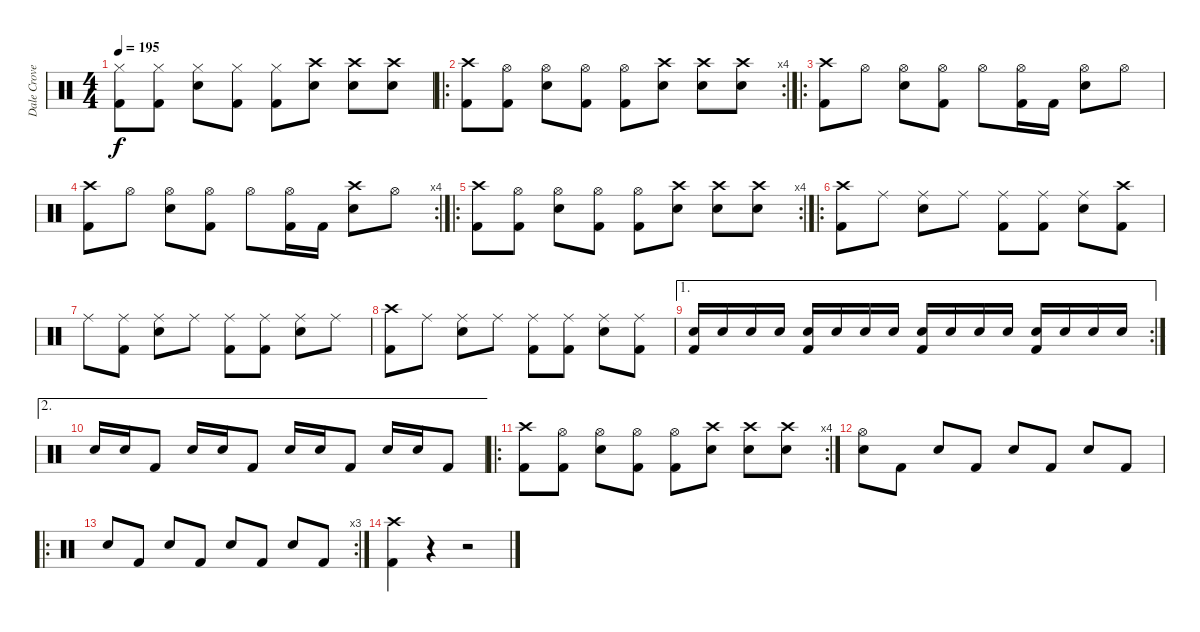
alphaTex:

\track ("Dale Crover" "Dale Crove") {instrument percussion}
\staff {score}
\articulation defaults
\ts (4 4)
\tempo 195
\clef neutral
\ks c
("Hi-Hat (closed)" "Kick (hit) 2").8{dy f} ("Hi-Hat (closed)" "Kick (hit) 2").8 ("Hi-Hat (closed)" "Electric Snare (hit)").8 ("Hi-Hat (closed)" "Kick (hit) 2").8 ("Hi-Hat (closed)" "Kick (hit) 2").8 ("Crash high (hit)" "Electric Snare (hit)").8 ("Crash high (hit)" "Electric Snare (hit)").8 ("Crash high (hit)" "Electric Snare (hit)").8 |
\ro
\rc 4
("Crash high (hit)" "Kick (hit) 2").8 ("Hi-Hat (open)" "Kick (hit) 2").8 ("Hi-Hat (open)" "Electric Snare (hit)").8 ("Hi-Hat (open)" "Kick (hit) 2").8 ("Hi-Hat (open)" "Kick (hit) 2").8 ("Crash high (hit)" "Electric Snare (hit)").8 ("Crash high (hit)" "Electric Snare (hit)").8 ("Crash high (hit)" "Electric Snare (hit)").8 |
\ro
("Crash high (hit)" "Kick (hit) 2").8 "Hi-Hat (open)".8 ("Hi-Hat (open)" "Electric Snare (hit)").8 ("Hi-Hat (open)" "Kick (hit) 2").8 "Hi-Hat (open)".8 ("Hi-Hat (open)" "Kick (hit) 2").16 "Kick (hit) 2".16 ("Hi-Hat (open)" "Electric Snare (hit)").8 "Hi-Hat (open)".8 |
\rc 4
("Crash high (hit)" "Kick (hit) 2").8 "Hi-Hat (open)".8 ("Hi-Hat (open)" "Electric Snare (hit)").8 ("Hi-Hat (open)" "Kick (hit) 2").8 "Hi-Hat (open)".8 ("Hi-Hat (open)" "Kick (hit) 2").16 "Kick (hit) 2".16 ("Crash high (hit)" "Electric Snare (hit)").8 "Hi-Hat (open)".8 |
\ro
\rc 4
("Crash high (hit)" "Kick (hit) 2").8 ("Hi-Hat (open)" "Kick (hit) 2").8 ("Hi-Hat (open)" "Electric Snare (hit)").8 ("Hi-Hat (open)" "Kick (hit) 2").8 ("Hi-Hat (open)" "Kick (hit) 2").8 ("Crash high (hit)" "Electric Snare (hit)").8 ("Crash high (hit)" "Electric Snare (hit)").8 ("Crash high (hit)" "Electric Snare (hit)").8 |
\ro
("Crash high (hit)" "Kick (hit) 2").8 "Ride (middle)".8 ("Ride (middle)" "Electric Snare (hit)").8 "Ride (middle)".8 ("Ride (middle)" "Kick (hit) 2").8 ("Ride (middle)" "Kick (hit) 2").8 ("Ride (middle)" "Electric Snare (hit)").8 ("Crash high (hit)" "Kick (hit) 2").8 |
"Ride (middle)".8 ("Ride (middle)" "Kick (hit) 2").8 ("Ride (middle)" "Electric Snare (hit)").8 "Ride (middle)".8 ("Ride (middle)" "Kick (hit) 2").8 ("Ride (middle)" "Kick (hit) 2").8 ("Ride (middle)" "Electric Snare (hit)").8 "Ride (middle)".8 |
("Crash high (hit)" "Kick (hit) 2").8 "Ride (middle)".8 ("Ride (middle)" "Electric Snare (hit)").8 "Ride (middle)".8 ("Ride (middle)" "Kick (hit) 2").8 ("Ride (middle)" "Kick (hit) 2").8 ("Ride (middle)" "Electric Snare (hit)").8 ("Ride (middle)" "Kick (hit) 2").8 |
\ae 1
\rc 2
("Electric Snare (hit)" "Kick (hit) 2").16 "Electric Snare (hit)".16 "Electric Snare (hit)".16 "Electric Snare (hit)".16 ("Electric Snare (hit)" "Kick (hit) 2").16 "Electric Snare (hit)".16 "Electric Snare (hit)".16 "Electric Snare (hit)".16 ("Electric Snare (hit)" "Kick (hit) 2").16 "Electric Snare (hit)".16 "Electric Snare (hit)".16 "Electric Snare (hit)".16 ("Electric Snare (hit)" "Kick (hit) 2").16 "Electric Snare (hit)".16 "Electric Snare (hit)".16 "Electric Snare (hit)".16 |
\ae 2 "Electric Snare (hit)".16 "Electric Snare (hit)".16 "Kick (hit) 2".8 "Electric Snare (hit)".16 "Electric Snare (hit)".16 "Kick (hit) 2".8 "Electric Snare (hit)".16 "Electric Snare (hit)".16 "Kick (hit) 2".8 "Electric Snare (hit)".16 "Electric Snare (hit)".16 "Kick (hit) 2".8
|
\ro
\rc 4
("Crash high (hit)" "Kick (hit) 2").8 ("Hi-Hat (open)" "Kick (hit) 2").8 ("Hi-Hat (open)" "Electric Snare (hit)").8 ("Hi-Hat (open)" "Kick (hit) 2").8 ("Hi-Hat (open)" "Kick (hit) 2").8 ("Crash high (hit)" "Electric Snare (hit)").8 ("Crash high (hit)" "Electric Snare (hit)").8 ("Crash high (hit)" "Electric Snare (hit)").8 |
("Hi-Hat (open)" "Electric Snare (hit)").8 "Kick (hit) 2".8 "Electric Snare (hit)".8 "Kick (hit) 2".8 "Electric Snare (hit)".8 "Kick (hit) 2".8 "Electric Snare (hit)".8 "Kick (hit) 2".8 |
\ro
\rc 3 "Electric Snare (hit)".8 "Kick (hit) 2".8 "Electric Snare (hit)".8 "Kick (hit) 2".8 "Electric Snare (hit)".8 "Kick (hit) 2".8 "Electric Snare (hit)".8 "Kick (hit) 2".8
|
("Crash high (hit)" "Kick (hit) 2").4 r.4 r.2
